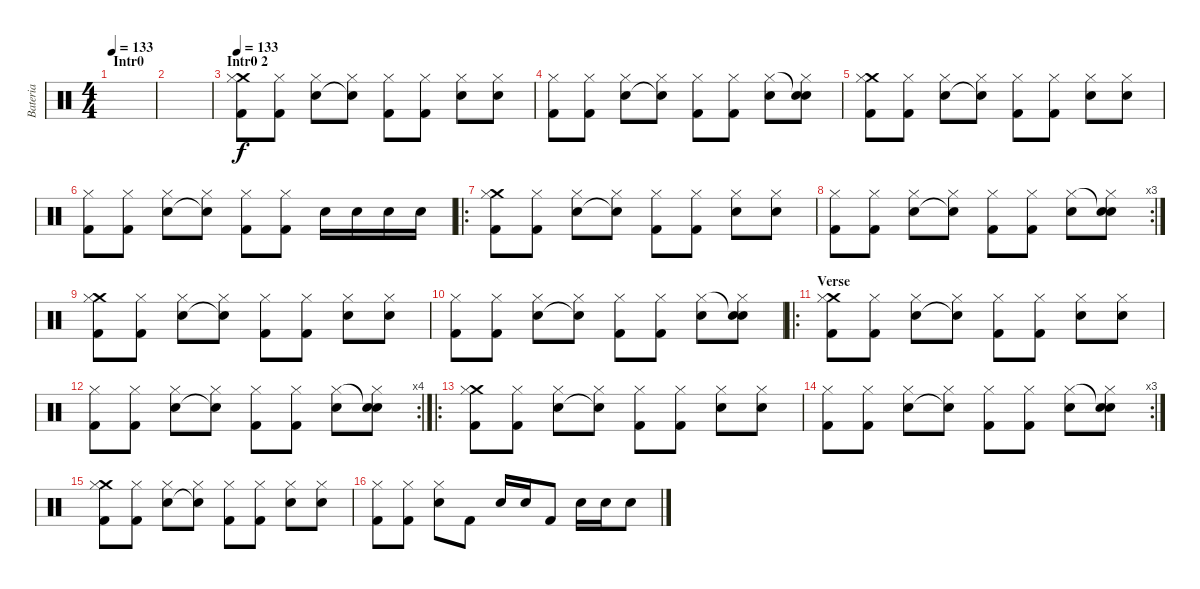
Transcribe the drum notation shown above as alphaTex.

\track ("Bateria" "Bateria") {instrument percussion}
\staff {score}
\articulation defaults
\ts (4 4)
\section ("" "Intr0")
\tempo 133
\clef neutral
\ks c
|
|
\section ("" "Intr0 2")
\tempo 133
("Crash medium (hit)" "Hi-Hat (closed)" "Kick (hit) 2").8 ("Hi-Hat (closed)" "Kick (hit) 2").8 ("Hi-Hat (closed)" "Electric Snare (hit)").8 ("Hi-Hat (closed)" "Snare (hit) 2"{t}).8 ("Hi-Hat (closed)" "Kick (hit) 2").8 ("Hi-Hat (closed)" "Kick (hit) 2").8 ("Hi-Hat (closed)" "Electric Snare (hit)").8 ("Hi-Hat (closed)" "Electric Snare (hit)").8 |
("Hi-Hat (closed)" "Kick (hit) 2").8 ("Hi-Hat (closed)" "Kick (hit) 2").8 ("Hi-Hat (closed)" "Electric Snare (hit)").8 ("Hi-Hat (closed)" "Snare (hit) 2"{t}).8 ("Hi-Hat (closed)" "Kick (hit) 2").8 ("Hi-Hat (closed)" "Kick (hit) 2").8 ("Hi-Hat (closed)" "Electric Snare (hit)").8 ("Snare (hit)"{t} "Hi-Hat (closed)" "Electric Snare (hit)").8 |
("Crash medium (hit)" "Hi-Hat (closed)" "Kick (hit) 2").8 ("Hi-Hat (closed)" "Kick (hit) 2").8 ("Hi-Hat (closed)" "Electric Snare (hit)").8 ("Hi-Hat (closed)" "Snare (hit) 2"{t}).8 ("Hi-Hat (closed)" "Kick (hit) 2").8 ("Hi-Hat (closed)" "Kick (hit) 2").8 ("Hi-Hat (closed)" "Electric Snare (hit)").8 ("Hi-Hat (closed)" "Electric Snare (hit)").8 |
("Hi-Hat (closed)" "Kick (hit) 2").8 ("Hi-Hat (closed)" "Kick (hit) 2").8 ("Hi-Hat (closed)" "Electric Snare (hit)").8 ("Hi-Hat (closed)" "Snare (hit) 2"{t}).8 ("Hi-Hat (closed)" "Kick (hit) 2").8 ("Hi-Hat (closed)" "Kick (hit) 2").8 "Electric Snare (hit)".16 "Electric Snare (hit)".16 "Electric Snare (hit)".16 "Electric Snare (hit)".16 |
\ro
("Crash medium (hit)" "Hi-Hat (closed)" "Kick (hit) 2").8 ("Hi-Hat (closed)" "Kick (hit) 2").8 ("Hi-Hat (closed)" "Electric Snare (hit)").8 ("Hi-Hat (closed)" "Snare (hit) 2"{t}).8 ("Hi-Hat (closed)" "Kick (hit) 2").8 ("Hi-Hat (closed)" "Kick (hit) 2").8 ("Hi-Hat (closed)" "Electric Snare (hit)").8 ("Hi-Hat (closed)" "Electric Snare (hit)").8 |
\rc 3
("Hi-Hat (closed)" "Kick (hit) 2").8 ("Hi-Hat (closed)" "Kick (hit) 2").8 ("Hi-Hat (closed)" "Electric Snare (hit)").8 ("Hi-Hat (closed)" "Snare (hit) 2"{t}).8 ("Hi-Hat (closed)" "Kick (hit) 2").8 ("Hi-Hat (closed)" "Kick (hit) 2").8 ("Hi-Hat (closed)" "Electric Snare (hit)").8 ("Snare (hit)"{t} "Hi-Hat (closed)" "Electric Snare (hit)").8 |
("Crash medium (hit)" "Hi-Hat (closed)" "Kick (hit) 2").8 ("Hi-Hat (closed)" "Kick (hit) 2").8 ("Hi-Hat (closed)" "Electric Snare (hit)").8 ("Hi-Hat (closed)" "Snare (hit) 2"{t}).8 ("Hi-Hat (closed)" "Kick (hit) 2").8 ("Hi-Hat (closed)" "Kick (hit) 2").8 ("Hi-Hat (closed)" "Electric Snare (hit)").8 ("Hi-Hat (closed)" "Electric Snare (hit)").8 |
("Hi-Hat (closed)" "Kick (hit) 2").8 ("Hi-Hat (closed)" "Kick (hit) 2").8 ("Hi-Hat (closed)" "Electric Snare (hit)").8 ("Hi-Hat (closed)" "Snare (hit) 2"{t}).8 ("Hi-Hat (closed)" "Kick (hit) 2").8 ("Hi-Hat (closed)" "Kick (hit) 2").8 ("Hi-Hat (closed)" "Electric Snare (hit)").8 ("Snare (hit)"{t} "Hi-Hat (closed)" "Electric Snare (hit)").8 |
\ro
\section ("" "Verse")
("Crash medium (hit)" "Hi-Hat (closed)" "Kick (hit) 2").8 ("Hi-Hat (closed)" "Kick (hit) 2").8 ("Hi-Hat (closed)" "Electric Snare (hit)").8 ("Hi-Hat (closed)" "Snare (hit) 2"{t}).8 ("Hi-Hat (closed)" "Kick (hit) 2").8 ("Hi-Hat (closed)" "Kick (hit) 2").8 ("Hi-Hat (closed)" "Electric Snare (hit)").8 ("Hi-Hat (closed)" "Electric Snare (hit)").8 |
\rc 4
("Hi-Hat (closed)" "Kick (hit) 2").8 ("Hi-Hat (closed)" "Kick (hit) 2").8 ("Hi-Hat (closed)" "Electric Snare (hit)").8 ("Hi-Hat (closed)" "Snare (hit) 2"{t}).8 ("Hi-Hat (closed)" "Kick (hit) 2").8 ("Hi-Hat (closed)" "Kick (hit) 2").8 ("Hi-Hat (closed)" "Electric Snare (hit)").8 ("Snare (hit)"{t} "Hi-Hat (closed)" "Electric Snare (hit)").8 |
\ro
("Crash medium (hit)" "Hi-Hat (closed)" "Kick (hit) 2").8 ("Hi-Hat (closed)" "Kick (hit) 2").8 ("Hi-Hat (closed)" "Electric Snare (hit)").8 ("Hi-Hat (closed)" "Snare (hit) 2"{t}).8 ("Hi-Hat (closed)" "Kick (hit) 2").8 ("Hi-Hat (closed)" "Kick (hit) 2").8 ("Hi-Hat (closed)" "Electric Snare (hit)").8 ("Hi-Hat (closed)" "Electric Snare (hit)").8 |
\rc 3
("Hi-Hat (closed)" "Kick (hit) 2").8 ("Hi-Hat (closed)" "Kick (hit) 2").8 ("Hi-Hat (closed)" "Electric Snare (hit)").8 ("Hi-Hat (closed)" "Snare (hit) 2"{t}).8 ("Hi-Hat (closed)" "Kick (hit) 2").8 ("Hi-Hat (closed)" "Kick (hit) 2").8 ("Hi-Hat (closed)" "Electric Snare (hit)").8 ("Snare (hit)"{t} "Hi-Hat (closed)" "Electric Snare (hit)").8 |
("Crash medium (hit)" "Hi-Hat (closed)" "Kick (hit) 2").8 ("Hi-Hat (closed)" "Kick (hit) 2").8 ("Hi-Hat (closed)" "Electric Snare (hit)").8 ("Hi-Hat (closed)" "Snare (hit) 2"{t}).8 ("Hi-Hat (closed)" "Kick (hit) 2").8 ("Hi-Hat (closed)" "Kick (hit) 2").8 ("Hi-Hat (closed)" "Electric Snare (hit)").8 ("Hi-Hat (closed)" "Electric Snare (hit)").8 |
("Hi-Hat (closed)" "Kick (hit) 2").8 ("Hi-Hat (closed)" "Kick (hit) 2").8 ("Hi-Hat (closed)" "Electric Snare (hit)").8 "Kick (hit) 2".8 "Electric Snare (hit)".16 "Electric Snare (hit)".16 "Kick (hit) 2".8 "Electric Snare (hit)".16 "Electric Snare (hit)".16 "Electric Snare (hit)".8
